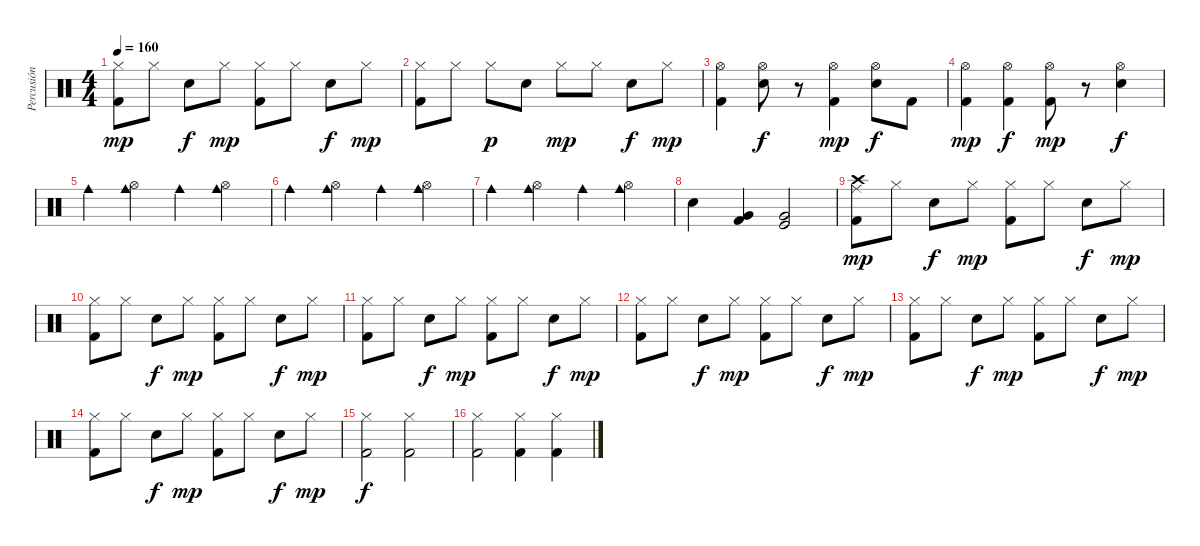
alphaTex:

\track ("Percusión" "Percusión") {instrument percussion}
\staff {score}
\articulation defaults
\ts (4 4)
\tempo 160
\clef neutral
\ks c
("Hi-Hat (closed)" "Kick (hit) 2").8{dy mp} "Hi-Hat (closed)".8 "Snare (hit) 2".8{dy f} "Hi-Hat (closed)".8{dy mp} ("Hi-Hat (closed)" "Kick (hit) 2").8 "Hi-Hat (closed)".8 "Snare (hit) 2".8{dy f} "Hi-Hat (closed)".8{dy mp} |
("Hi-Hat (closed)" "Kick (hit) 2").8 "Hi-Hat (closed)".8 "Hi-Hat (closed)".8{dy p} "Snare (hit) 2".8 "Hi-Hat (closed)".8{dy mp} "Hi-Hat (closed)".8 "Snare (hit) 2".8{dy f} "Hi-Hat (closed)".8{dy mp} |
("Hi-Hat (open)" "Kick (hit) 2").4 ("Hi-Hat (open)" "Snare (hit) 2").8{dy f} r.8 ("Hi-Hat (open)" "Kick (hit) 2").4{dy mp} ("Hi-Hat (open)" "Snare (hit) 2").8{dy f} "Kick (hit) 2".8 |
("Hi-Hat (open)" "Kick (hit) 2").4{dy mp} ("Hi-Hat (open)" "Kick (hit) 2").4{dy f} ("Hi-Hat (open)" "Kick (hit) 2").8{dy mp} r.8 ("Hi-Hat (open)" "Snare (hit) 2").4{dy f} |
"Cowbell medium (hit)".4 ("Cowbell medium (hit)" "Hi-Hat (open)").4 "Cowbell medium (hit)".4 ("Cowbell medium (hit)" "Hi-Hat (open)").4 |
"Cowbell medium (hit)".4 ("Cowbell medium (hit)" "Hi-Hat (open)").4 "Cowbell medium (hit)".4 ("Cowbell medium (hit)" "Hi-Hat (open)").4 |
"Cowbell medium (hit)".4 ("Cowbell medium (hit)" "Hi-Hat (open)").4 "Cowbell medium (hit)".4 ("Cowbell medium (hit)" "Hi-Hat (open)").4 |
"Snare (hit) 2".4 ("Very Low Tom (hit)" "Kick (hit) 2").4 ("Very Low Tom (hit)" "Kick (hit)").2 |
("Crash high (hit)" "Ride (middle)" "Kick (hit) 2").8{dy mp} "Hi-Hat (closed)".8 "Snare (hit) 2".8{dy f} "Hi-Hat (closed)".8{dy mp} ("Hi-Hat (closed)" "Kick (hit) 2").8 "Hi-Hat (closed)".8 "Snare (hit) 2".8{dy f} "Hi-Hat (closed)".8{dy mp} |
("Hi-Hat (closed)" "Kick (hit) 2").8 "Hi-Hat (closed)".8 "Snare (hit) 2".8{dy f} "Hi-Hat (closed)".8{dy mp} ("Hi-Hat (closed)" "Kick (hit) 2").8 "Hi-Hat (closed)".8 "Snare (hit) 2".8{dy f} "Hi-Hat (closed)".8{dy mp} |
("Hi-Hat (closed)" "Kick (hit) 2").8 "Hi-Hat (closed)".8 "Snare (hit) 2".8{dy f} "Hi-Hat (closed)".8{dy mp} ("Hi-Hat (closed)" "Kick (hit) 2").8 "Hi-Hat (closed)".8 "Snare (hit) 2".8{dy f} "Hi-Hat (closed)".8{dy mp} |
("Hi-Hat (closed)" "Kick (hit) 2").8 "Hi-Hat (closed)".8 "Snare (hit) 2".8{dy f} "Hi-Hat (closed)".8{dy mp} ("Hi-Hat (closed)" "Kick (hit) 2").8 "Hi-Hat (closed)".8 "Snare (hit) 2".8{dy f} "Hi-Hat (closed)".8{dy mp} |
("Hi-Hat (closed)" "Kick (hit) 2").8 "Hi-Hat (closed)".8 "Snare (hit) 2".8{dy f} "Hi-Hat (closed)".8{dy mp} ("Hi-Hat (closed)" "Kick (hit) 2").8 "Hi-Hat (closed)".8 "Snare (hit) 2".8{dy f} "Hi-Hat (closed)".8{dy mp} |
("Hi-Hat (closed)" "Kick (hit) 2").8 "Hi-Hat (closed)".8 "Snare (hit) 2".8{dy f} "Hi-Hat (closed)".8{dy mp} ("Hi-Hat (closed)" "Kick (hit) 2").8 "Hi-Hat (closed)".8 "Snare (hit) 2".8{dy f} "Hi-Hat (closed)".8{dy mp} |
("Hi-Hat (closed)" "Kick (hit) 2").2{dy f} ("Hi-Hat (closed)" "Kick (hit) 2").2 |
("Hi-Hat (closed)" "Kick (hit) 2").2 ("Hi-Hat (closed)" "Kick (hit) 2").4 ("Hi-Hat (closed)" "Kick (hit) 2").4
